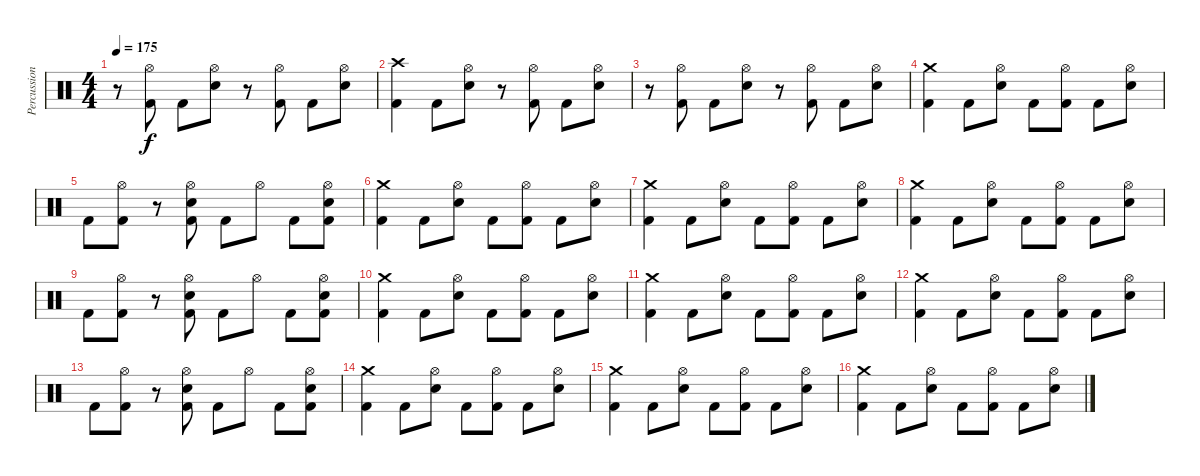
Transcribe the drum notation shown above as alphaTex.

\track ("Percussion" "Percussion") {instrument percussion}
\staff {score}
\articulation defaults
\ts (4 4)
\tempo 175
\clef neutral
\ks c
r.8{dy f} ("Hi-Hat (open)" "Kick (hit) 2").8 "Kick (hit) 2".8 ("Hi-Hat (open)" "Electric Snare (hit)").8 r.8 ("Hi-Hat (open)" "Kick (hit) 2").8 "Kick (hit) 2".8 ("Hi-Hat (open)" "Electric Snare (hit)").8 |
("Crash high (hit)" "Kick (hit) 2").4 "Kick (hit) 2".8 ("Hi-Hat (open)" "Electric Snare (hit)").8 r.8 ("Hi-Hat (open)" "Kick (hit) 2").8 "Kick (hit) 2".8 ("Hi-Hat (open)" "Electric Snare (hit)").8 |
r.8 ("Hi-Hat (open)" "Kick (hit) 2").8 "Kick (hit) 2".8 ("Hi-Hat (open)" "Electric Snare (hit)").8 r.8 ("Hi-Hat (open)" "Kick (hit) 2").8 "Kick (hit) 2".8 ("Hi-Hat (open)" "Electric Snare (hit)").8 |
("Crash medium (hit)" "Kick (hit) 2").4 "Kick (hit) 2".8 ("Hi-Hat (open)" "Electric Snare (hit)").8 "Kick (hit) 2".8 ("Hi-Hat (open)" "Kick (hit) 2").8 "Kick (hit) 2".8 ("Hi-Hat (open)" "Electric Snare (hit)").8 |
"Kick (hit) 2".8 ("Hi-Hat (open)" "Kick (hit) 2").8 r.8 ("Hi-Hat (open)" "Electric Snare (hit)" "Kick (hit) 2").8 "Kick (hit) 2".8 "Hi-Hat (open)".8 "Kick (hit) 2".8 ("Hi-Hat (open)" "Electric Snare (hit)" "Kick (hit) 2").8 |
("Crash medium (hit)" "Kick (hit) 2").4 "Kick (hit) 2".8 ("Hi-Hat (open)" "Electric Snare (hit)").8 "Kick (hit) 2".8 ("Hi-Hat (open)" "Kick (hit) 2").8 "Kick (hit) 2".8 ("Hi-Hat (open)" "Electric Snare (hit)").8 |
("Crash medium (hit)" "Kick (hit) 2").4 "Kick (hit) 2".8 ("Hi-Hat (open)" "Electric Snare (hit)").8 "Kick (hit) 2".8 ("Hi-Hat (open)" "Kick (hit) 2").8 "Kick (hit) 2".8 ("Hi-Hat (open)" "Electric Snare (hit)").8 |
("Crash medium (hit)" "Kick (hit) 2").4 "Kick (hit) 2".8 ("Hi-Hat (open)" "Electric Snare (hit)").8 "Kick (hit) 2".8 ("Hi-Hat (open)" "Kick (hit) 2").8 "Kick (hit) 2".8 ("Hi-Hat (open)" "Electric Snare (hit)").8 |
"Kick (hit) 2".8 ("Hi-Hat (open)" "Kick (hit) 2").8 r.8 ("Hi-Hat (open)" "Electric Snare (hit)" "Kick (hit) 2").8 "Kick (hit) 2".8 "Hi-Hat (open)".8 "Kick (hit) 2".8 ("Hi-Hat (open)" "Electric Snare (hit)" "Kick (hit) 2").8 |
("Crash medium (hit)" "Kick (hit) 2").4 "Kick (hit) 2".8 ("Hi-Hat (open)" "Electric Snare (hit)").8 "Kick (hit) 2".8 ("Hi-Hat (open)" "Kick (hit) 2").8 "Kick (hit) 2".8 ("Hi-Hat (open)" "Electric Snare (hit)").8 |
("Crash medium (hit)" "Kick (hit) 2").4 "Kick (hit) 2".8 ("Hi-Hat (open)" "Electric Snare (hit)").8 "Kick (hit) 2".8 ("Hi-Hat (open)" "Kick (hit) 2").8 "Kick (hit) 2".8 ("Hi-Hat (open)" "Electric Snare (hit)").8 |
("Crash medium (hit)" "Kick (hit) 2").4 "Kick (hit) 2".8 ("Hi-Hat (open)" "Electric Snare (hit)").8 "Kick (hit) 2".8 ("Hi-Hat (open)" "Kick (hit) 2").8 "Kick (hit) 2".8 ("Hi-Hat (open)" "Electric Snare (hit)").8 |
"Kick (hit) 2".8 ("Hi-Hat (open)" "Kick (hit) 2").8 r.8 ("Hi-Hat (open)" "Electric Snare (hit)" "Kick (hit) 2").8 "Kick (hit) 2".8 "Hi-Hat (open)".8 "Kick (hit) 2".8 ("Hi-Hat (open)" "Electric Snare (hit)" "Kick (hit) 2").8 |
("Crash medium (hit)" "Kick (hit) 2").4 "Kick (hit) 2".8 ("Hi-Hat (open)" "Electric Snare (hit)").8 "Kick (hit) 2".8 ("Hi-Hat (open)" "Kick (hit) 2").8 "Kick (hit) 2".8 ("Hi-Hat (open)" "Electric Snare (hit)").8 |
("Crash medium (hit)" "Kick (hit) 2").4 "Kick (hit) 2".8 ("Hi-Hat (open)" "Electric Snare (hit)").8 "Kick (hit) 2".8 ("Hi-Hat (open)" "Kick (hit) 2").8 "Kick (hit) 2".8 ("Hi-Hat (open)" "Electric Snare (hit)").8 |
("Crash medium (hit)" "Kick (hit) 2").4 "Kick (hit) 2".8 ("Hi-Hat (open)" "Electric Snare (hit)").8 "Kick (hit) 2".8 ("Hi-Hat (open)" "Kick (hit) 2").8 "Kick (hit) 2".8 ("Hi-Hat (open)" "Electric Snare (hit)").8
